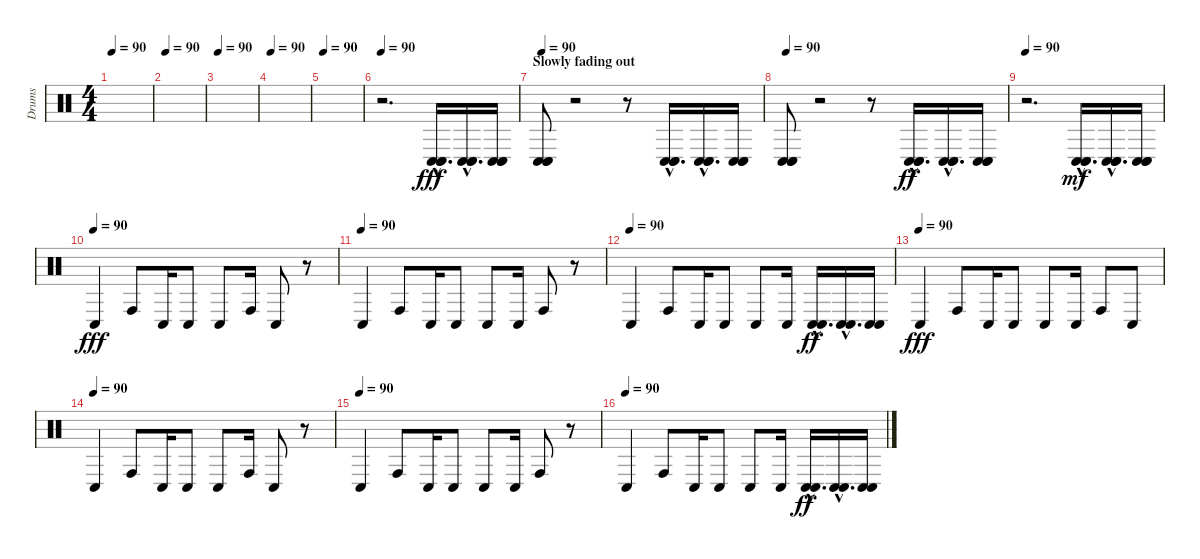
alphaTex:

\track ("Drums" "Drums") {instrument percussion}
\staff {score}
\articulation defaults
\ts (4 4)
\tempo 90
\clef neutral
\ks c
|
\tempo 90
|
\tempo 90
|
\tempo 90
|
\tempo 90
|
\tempo 90
r.2{d} ("Conga low (hit)"{hac} "Conga low (hit)"{hac} "Conga low (hit)"{hac}).16{d dy fff} ("Conga low (hit)"{hac} "Conga low (hit)"{hac} "Conga low (hit)"{hac}).16{d} ("Conga low (hit)" "Conga low (hit)" "Conga low (hit)").16 |
\section ("" "Slowly fading out")
\tempo 90
("Conga low (hit)" "Conga low (hit)" "Conga low (hit)").8 r.2 r.8 ("Conga low (hit)"{hac} "Conga low (hit)"{hac} "Conga low (hit)"{hac}).16{d} ("Conga low (hit)"{hac} "Conga low (hit)"{hac} "Conga low (hit)"{hac}).16{d} ("Conga low (hit)" "Conga low (hit)" "Conga low (hit)").16 |
\tempo 90
("Conga low (hit)" "Conga low (hit)" "Conga low (hit)").8 r.2 r.8 ("Conga low (hit)"{hac} "Conga low (hit)"{hac} "Conga low (hit)"{hac}).16{d dy ff} ("Conga low (hit)"{hac} "Conga low (hit)"{hac} "Conga low (hit)"{hac}).16{d} ("Conga low (hit)" "Conga low (hit)" "Conga low (hit)").16 |
\tempo 90
r.2{d} ("Conga low (hit)"{hac} "Conga low (hit)"{hac} "Conga low (hit)"{hac}).16{d dy mf} ("Conga low (hit)"{hac} "Conga low (hit)"{hac} "Conga low (hit)"{hac}).16{d} ("Conga low (hit)" "Conga low (hit)" "Conga low (hit)").16 |
\tempo (90)
"Conga low (hit)".4{dy fff} "Conga high (hit)".8 "Conga low (hit)".16 "Conga low (hit)".8 "Conga low (hit)".8 "Conga high (hit)".16 "Conga low (hit)".8 r.8 |
\tempo (90)
"Conga low (hit)".4 "Conga high (hit)".8 "Conga low (hit)".16 "Conga low (hit)".8 "Conga low (hit)".8 "Conga low (hit)".16 "Conga high (hit)".8 r.8 |
\tempo (90)
"Conga low (hit)".4 "Conga high (hit)".8 "Conga low (hit)".16 "Conga low (hit)".8 "Conga low (hit)".8 "Conga low (hit)".16 ("Conga low (hit)"{hac} "Conga low (hit)"{hac}).16{d dy ff} ("Conga low (hit)"{hac} "Conga low (hit)"{hac}).16{d} ("Conga low (hit)" "Conga low (hit)").16 |
\tempo (90)
"Conga low (hit)".4{dy fff} "Conga high (hit)".8 "Conga low (hit)".16 "Conga low (hit)".8 "Conga low (hit)".8 "Conga low (hit)".16 "Conga high (hit)".8 "Conga low (hit)".8 |
\tempo (90)
"Conga low (hit)".4 "Conga high (hit)".8 "Conga low (hit)".16 "Conga low (hit)".8 "Conga low (hit)".8 "Conga high (hit)".16 "Conga low (hit)".8 r.8 |
\tempo (90)
"Conga low (hit)".4 "Conga high (hit)".8 "Conga low (hit)".16 "Conga low (hit)".8 "Conga low (hit)".8 "Conga low (hit)".16 "Conga high (hit)".8 r.8 |
\tempo (90)
"Conga low (hit)".4 "Conga high (hit)".8 "Conga low (hit)".16 "Conga low (hit)".8 "Conga low (hit)".8 "Conga low (hit)".16 ("Conga low (hit)"{hac} "Conga low (hit)"{hac}).16{d dy ff} ("Conga low (hit)"{hac} "Conga low (hit)"{hac}).16{d} ("Conga low (hit)" "Conga low (hit)").16
